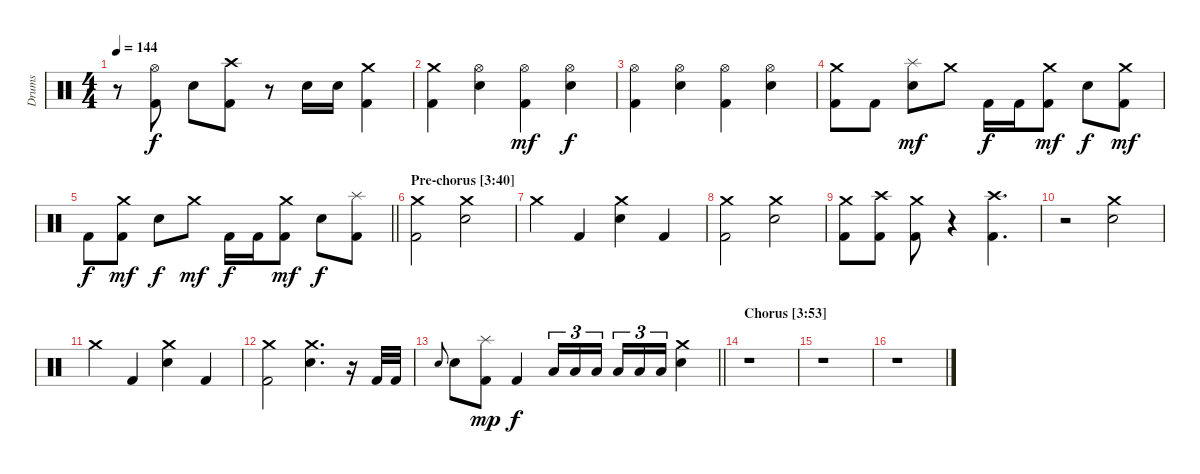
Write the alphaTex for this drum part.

\track ("Drums" "Drums") {instrument percussion}
\staff {score}
\articulation defaults
\ts (4 4)
\tempo 144
\clef neutral
\ks c
r.8{dy f} ("Hi-Hat (open)" "Kick (hit) 2").8 "Snare (hit) 2".8 ("Crash high (hit)" "Kick (hit) 2").8 r.8 "Snare (hit) 2".16 "Snare (hit) 2".16 ("Crash medium (hit)" "Kick (hit) 2").4 |
("Crash medium (hit)" "Kick (hit) 2").4 ("Hi-Hat (open)" "Snare (hit) 2").4 ("Hi-Hat (open)" "Kick (hit) 2").4{dy mf} ("Hi-Hat (open)" "Snare (hit) 2").4{dy f} |
("Hi-Hat (open)" "Kick (hit) 2").4 ("Hi-Hat (open)" "Snare (hit) 2").4 ("Hi-Hat (open)" "Kick (hit) 2").4 ("Hi-Hat (open)" "Snare (hit) 2").4 |
("Crash medium (hit)" "Kick (hit) 2").8 "Kick (hit) 2".8 ("Splash (hit)" "Snare (hit) 2").8{dy mf} "Crash medium (hit)".8 "Kick (hit) 2".16{dy f} "Kick (hit) 2".16 ("Crash medium (hit)" "Kick (hit) 2").8{dy mf} "Snare (hit) 2".8{dy f} ("Crash medium (hit)" "Kick (hit) 2").8{dy mf} |
\barLineRight lightlight "Kick (hit) 2".8{dy f}
("Crash medium (hit)" "Kick (hit) 2").8{dy mf} "Snare (hit) 2".8{dy f} "Crash medium (hit)".8{dy mf} "Kick (hit) 2".16{dy f} "Kick (hit) 2".16 ("Crash medium (hit)" "Kick (hit) 2").8{dy mf} "Snare (hit) 2".8{dy f} ("Splash (hit)" "Kick (hit) 2").8 |
\section ("" "Pre-chorus [3:40]")
("Crash medium (hit)" "Kick (hit) 2").2 ("Crash medium (hit)" "Snare (hit) 2").2 |
"Crash medium (hit)".4 "Kick (hit) 2".4 ("Crash medium (hit)" "Snare (hit) 2").4 "Kick (hit) 2".4 |
("Crash medium (hit)" "Kick (hit) 2").2 ("Crash medium (hit)" "Snare (hit) 2").2 |
("Crash medium (hit)" "Kick (hit) 2").8 ("Crash high (hit)" "Kick (hit) 2").8 ("Crash medium (hit)" "Kick (hit) 2").8 r.4 ("Crash high (hit)" "Kick (hit) 2").4{d} |
r.2 ("Crash medium (hit)" "Snare (hit) 2").2 |
"Crash medium (hit)".4 "Kick (hit) 2".4 ("Crash medium (hit)" "Snare (hit) 2").4 "Kick (hit) 2".4 |
("Crash medium (hit)" "Kick (hit) 2").2 ("Crash medium (hit)" "Snare (hit) 2").4{d} r.16 "Kick (hit) 2".32 "Kick (hit) 2".32 |
\barLineRight lightlight "Snare (hit) 2".8{gr onbeat} "Snare (hit) 2".8
("Splash (hit)" "Kick (hit) 2").8{dy mp} "Kick (hit) 2".4{dy f} "Low Tom (hit)".16{tu (3 2)} "Low Tom (hit)".16{tu (3 2)} "Low Tom (hit)".16{tu (3 2) beam splitsecondary} "Low Tom (hit)".16{tu (3 2)} "Low Tom (hit)".16{tu (3 2)} "Low Tom (hit)".16{tu (3 2)} ("Crash medium (hit)" "Snare (hit) 2").4 |
\section ("" "Chorus [3:53]")
r.1 |
r.1 |
r.1
